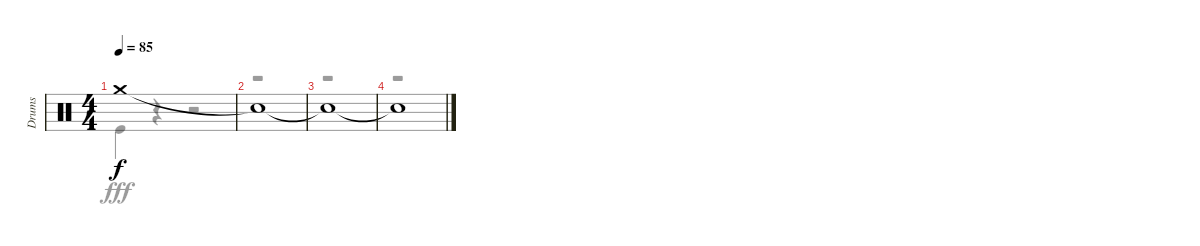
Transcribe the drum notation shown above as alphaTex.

\track ("Drums" "Drums") {instrument percussion}
\staff {score}
\articulation defaults
\voice
\ts (4 4)
\tempo 85
\clef neutral
\ks c "Crash medium (hit)".1{dy f}
|
"Snare (hit)"{t}.1 |
"Snare (hit)"{t}.1 |
"Snare (hit)"{t}.1
\voice
\clef neutral
\ottava regular
\simile none
\ks c "Kick (hit)".4{dy fff}
r.4 r.2 |
r.1 |
r.1 |
r.1
